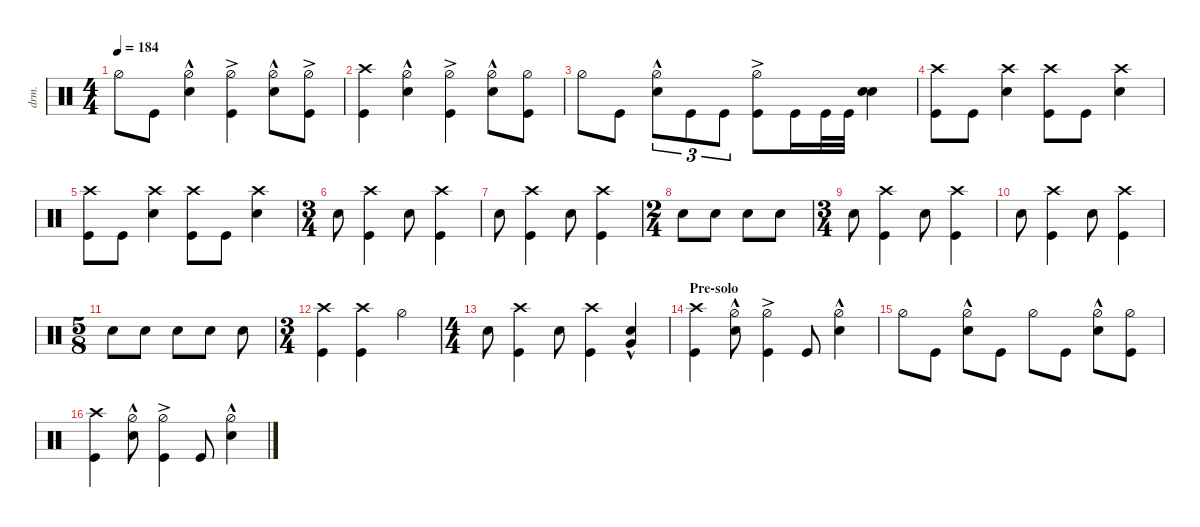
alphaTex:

\defaultSystemsLayout 4
\hideDynamics
\bracketExtendMode nobrackets
\otherSystemsTrackNameOrientation horizontal
\track ("Drums" "drm.") {defaultSystemsLayout 4 multiBarRest instrument percussion}
\staff {score}
\articulation defaults
\ts (4 4)
\tempo 184
\clef neutral
\ks c "Hi-Hat (half)".8{dy f} "Kick (hit)".8
("Hi-Hat (half)"{hac} "Snare (hit) 2").4 ("Hi-Hat (half)"{ac} "Kick (hit)").4 ("Hi-Hat (half)"{hac} "Snare (hit) 2").8 ("Kick (hit)" "Hi-Hat (half)"{ac}).8 |
("Crash high (hit)" "Kick (hit)").4 ("Hi-Hat (half)"{hac} "Snare (hit) 2").4 ("Hi-Hat (half)"{ac} "Kick (hit)").4 ("Hi-Hat (half)"{hac} "Snare (hit) 2").8 ("Kick (hit)" "Hi-Hat (half)").8 |
"Hi-Hat (half)".8 "Kick (hit)".8 ("Hi-Hat (half)"{hac} "Snare (hit) 2").8{tu (3 2)} "Kick (hit)".8{tu (3 2)} "Kick (hit)".8{tu (3 2)} ("Hi-Hat (half)"{ac} "Kick (hit)").8 "Kick (hit)".16 "Kick (hit)".32 "Kick (hit)".32 ("Snare (hit) 2" "Snare (hit) 2").4 |
("Crash high (hit)" "Kick (hit)").8 "Kick (hit)".8 ("Crash high (hit)" "Snare (hit) 2").4 ("Crash high (hit)" "Kick (hit)").8 "Kick (hit)".8 ("Crash high (hit)" "Snare (hit) 2").4 |
("Crash high (hit)" "Kick (hit)").8 "Kick (hit)".8 ("Crash high (hit)" "Snare (hit) 2").4 ("Crash high (hit)" "Kick (hit)").8 "Kick (hit)".8 ("Crash high (hit)" "Snare (hit) 2").4 |
\ts (3 4)
\beaming (8 2 2 2 2)
"Snare (hit) 2".8 ("Crash high (hit)" "Kick (hit)").4 "Snare (hit) 2".8 ("Crash high (hit)" "Kick (hit)").4 |
"Snare (hit) 2".8 ("Crash high (hit)" "Kick (hit)").4 "Snare (hit) 2".8 ("Crash high (hit)" "Kick (hit)").4 |
\ts (2 4)
\beaming (8 2 2 2 2)
"Snare (hit) 2".8 "Snare (hit) 2".8 "Snare (hit) 2".8 "Snare (hit) 2".8 |
\ts (3 4)
\beaming (8 2 2 2 2)
"Snare (hit) 2".8 ("Crash high (hit)" "Kick (hit)").4 "Snare (hit) 2".8 ("Crash high (hit)" "Kick (hit)").4 |
"Snare (hit) 2".8 ("Crash high (hit)" "Kick (hit)").4 "Snare (hit) 2".8 ("Crash high (hit)" "Kick (hit)").4 |
\ts (5 8)
\beaming (8 2 2 2 2)
"Snare (hit) 2".8 "Snare (hit) 2".8 "Snare (hit) 2".8 "Snare (hit) 2".8 "Snare (hit) 2".8 |
\ts (3 4)
\beaming (8 2 2 2 2)
("Crash high (hit)" "Kick (hit)").4 ("Crash high (hit)" "Kick (hit)").4 "Hi-Hat (half)".4 |
\ts (4 4)
\beaming (8 2 2 2 2)
"Snare (hit) 2".8 ("Crash high (hit)" "Kick (hit)").4 "Snare (hit) 2".8 ("Crash high (hit)" "Kick (hit)").4 ("Snare (hit) 2" "Very Low Tom (hit)"{hac}).4{dy ff} |
\section ("" "Pre-solo")
("Crash high (hit)" "Kick (hit)").4{dy f} ("Hi-Hat (half)"{hac} "Snare (hit) 2").8 ("Kick (hit)" "Hi-Hat (half)"{ac}).4 "Kick (hit)".8 ("Hi-Hat (half)"{hac} "Snare (hit) 2").4 |
"Hi-Hat (half)".8 "Kick (hit)".8 ("Hi-Hat (half)"{hac} "Snare (hit) 2").8 "Kick (hit)".8 "Hi-Hat (half)".8 "Kick (hit)".8 ("Hi-Hat (half)"{hac} "Snare (hit) 2").8 ("Kick (hit)" "Hi-Hat (half)").8 |
("Crash high (hit)" "Kick (hit)").4 ("Hi-Hat (half)"{hac} "Snare (hit) 2").8 ("Kick (hit)" "Hi-Hat (half)"{ac}).4 "Kick (hit)".8 ("Hi-Hat (half)"{hac} "Snare (hit) 2").4
